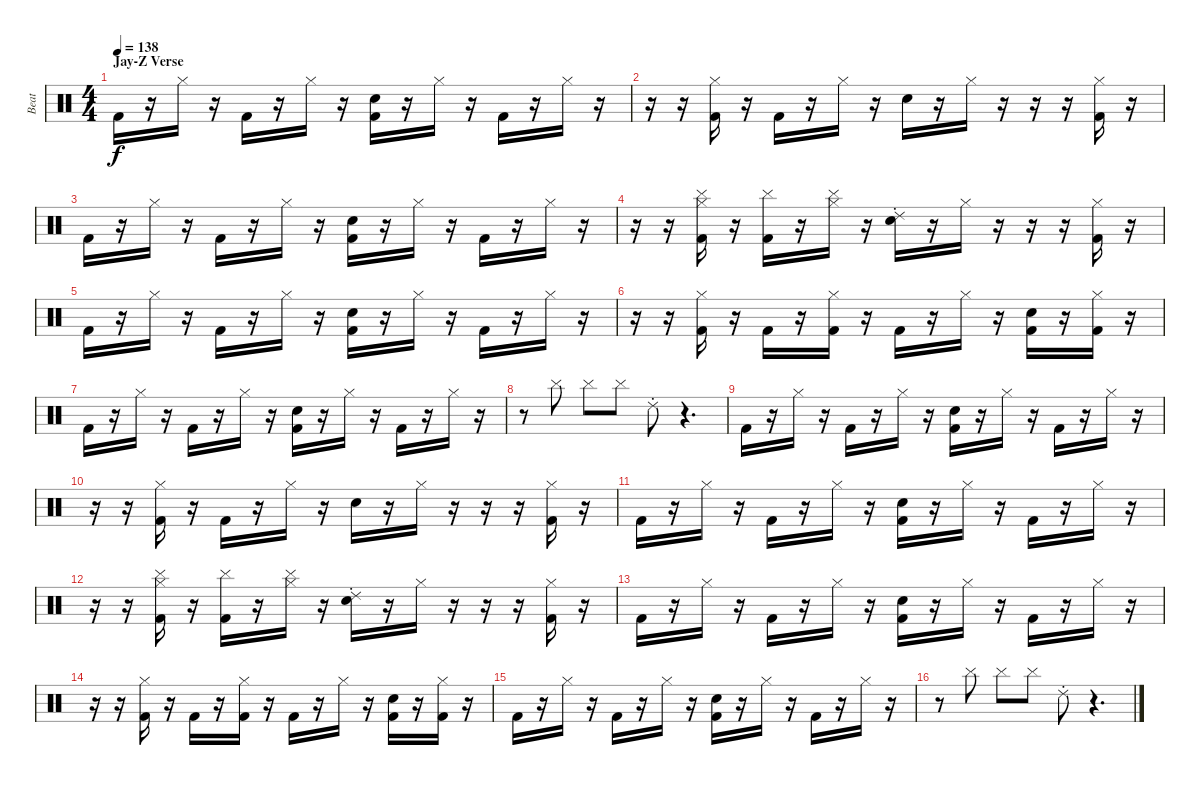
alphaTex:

\track ("Beat" "Beat") {instrument percussion}
\staff {score}
\articulation defaults
\ts (4 4)
\section ("" "Jay-Z Verse")
\tempo 138
\clef neutral
\ks c "Kick (hit) 2".16{dy f}
r.16 "Hi-Hat (closed)".16 r.16 "Kick (hit) 2".16 r.16 "Hi-Hat (closed)".16 r.16 ("Electric Snare (hit)" "Kick (hit) 2").16 r.16 "Hi-Hat (closed)".16 r.16 "Kick (hit) 2".16 r.16 "Hi-Hat (closed)".16 r.16 |
r.16 r.16 ("Hi-Hat (closed)" "Kick (hit) 2").16 r.16 "Kick (hit) 2".16 r.16 "Hi-Hat (closed)".16 r.16 "Electric Snare (hit)".16 r.16 "Hi-Hat (closed)".16 r.16 r.16 r.16 ("Hi-Hat (closed)" "Kick (hit) 2").16 r.16 |
"Kick (hit) 2".16 r.16 "Hi-Hat (closed)".16 r.16 "Kick (hit) 2".16 r.16 "Hi-Hat (closed)".16 r.16 ("Electric Snare (hit)" "Kick (hit) 2").16 r.16 "Hi-Hat (closed)".16 r.16 "Kick (hit) 2".16 r.16 "Hi-Hat (closed)".16 r.16 |
r.16 r.16 ("Cymbal (hit)" "Hi-Hat (closed)" "Kick (hit) 2").16 r.16 ("Cymbal (hit)" "Kick (hit) 2").16 r.16 ("Cymbal (hit)" "Hi-Hat (closed)").16 r.16 ("Ride (choke) 2" "Electric Snare (hit)").16 r.16 "Hi-Hat (closed)".16 r.16 r.16 r.16 ("Hi-Hat (closed)" "Kick (hit) 2").16 r.16 |
"Kick (hit) 2".16 r.16 "Hi-Hat (closed)".16 r.16 "Kick (hit) 2".16 r.16 "Hi-Hat (closed)".16 r.16 ("Electric Snare (hit)" "Kick (hit) 2").16 r.16 "Hi-Hat (closed)".16 r.16 "Kick (hit) 2".16 r.16 "Hi-Hat (closed)".16 r.16 |
r.16 r.16 ("Hi-Hat (closed)" "Kick (hit) 2").16 r.16 "Kick (hit) 2".16 r.16 ("Hi-Hat (closed)" "Kick (hit) 2").16 r.16 "Kick (hit) 2".16 r.16 "Hi-Hat (closed)".16 r.16 ("Electric Snare (hit)" "Kick (hit) 2").16 r.16 ("Hi-Hat (closed)" "Kick (hit) 2").16 r.16 |
"Kick (hit) 2".16 r.16 "Hi-Hat (closed)".16 r.16 "Kick (hit) 2".16 r.16 "Hi-Hat (closed)".16 r.16 ("Electric Snare (hit)" "Kick (hit) 2").16 r.16 "Hi-Hat (closed)".16 r.16 "Kick (hit) 2".16 r.16 "Hi-Hat (closed)".16 r.16 |
r.8 "Cymbal (hit)".8 "Cymbal (hit)".8 "Cymbal (hit)".8 "Ride (choke) 2".8 r.4{d} |
"Kick (hit) 2".16 r.16 "Hi-Hat (closed)".16 r.16 "Kick (hit) 2".16 r.16 "Hi-Hat (closed)".16 r.16 ("Electric Snare (hit)" "Kick (hit) 2").16 r.16 "Hi-Hat (closed)".16 r.16 "Kick (hit) 2".16 r.16 "Hi-Hat (closed)".16 r.16 |
r.16 r.16 ("Hi-Hat (closed)" "Kick (hit) 2").16 r.16 "Kick (hit) 2".16 r.16 "Hi-Hat (closed)".16 r.16 "Electric Snare (hit)".16 r.16 "Hi-Hat (closed)".16 r.16 r.16 r.16 ("Hi-Hat (closed)" "Kick (hit) 2").16 r.16 |
"Kick (hit) 2".16 r.16 "Hi-Hat (closed)".16 r.16 "Kick (hit) 2".16 r.16 "Hi-Hat (closed)".16 r.16 ("Electric Snare (hit)" "Kick (hit) 2").16 r.16 "Hi-Hat (closed)".16 r.16 "Kick (hit) 2".16 r.16 "Hi-Hat (closed)".16 r.16 |
r.16 r.16 ("Cymbal (hit)" "Hi-Hat (closed)" "Kick (hit) 2").16 r.16 ("Cymbal (hit)" "Kick (hit) 2").16 r.16 ("Cymbal (hit)" "Hi-Hat (closed)").16 r.16 ("Ride (choke) 2" "Electric Snare (hit)").16 r.16 "Hi-Hat (closed)".16 r.16 r.16 r.16 ("Hi-Hat (closed)" "Kick (hit) 2").16 r.16 |
"Kick (hit) 2".16 r.16 "Hi-Hat (closed)".16 r.16 "Kick (hit) 2".16 r.16 "Hi-Hat (closed)".16 r.16 ("Electric Snare (hit)" "Kick (hit) 2").16 r.16 "Hi-Hat (closed)".16 r.16 "Kick (hit) 2".16 r.16 "Hi-Hat (closed)".16 r.16 |
r.16 r.16 ("Hi-Hat (closed)" "Kick (hit) 2").16 r.16 "Kick (hit) 2".16 r.16 ("Hi-Hat (closed)" "Kick (hit) 2").16 r.16 "Kick (hit) 2".16 r.16 "Hi-Hat (closed)".16 r.16 ("Electric Snare (hit)" "Kick (hit) 2").16 r.16 ("Hi-Hat (closed)" "Kick (hit) 2").16 r.16 |
"Kick (hit) 2".16 r.16 "Hi-Hat (closed)".16 r.16 "Kick (hit) 2".16 r.16 "Hi-Hat (closed)".16 r.16 ("Electric Snare (hit)" "Kick (hit) 2").16 r.16 "Hi-Hat (closed)".16 r.16 "Kick (hit) 2".16 r.16 "Hi-Hat (closed)".16 r.16 |
r.8 "Cymbal (hit)".8 "Cymbal (hit)".8 "Cymbal (hit)".8 "Ride (choke) 2".8 r.4{d}
